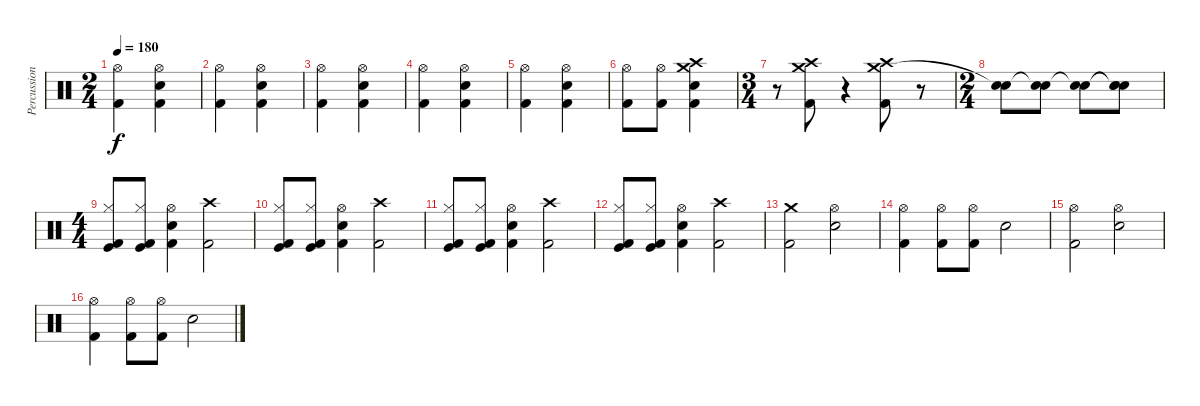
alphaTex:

\track ("Percussion" "Percussion") {instrument percussion}
\staff {score}
\articulation defaults
\ts (2 4)
\tempo 180
\clef neutral
\ks c
("Hi-Hat (open)" "Kick (hit) 2").4{dy f} ("Hi-Hat (open)" "Snare (hit) 2" "Kick (hit) 2").4 |
("Hi-Hat (open)" "Kick (hit) 2").4 ("Hi-Hat (open)" "Snare (hit) 2" "Kick (hit) 2").4 |
("Hi-Hat (open)" "Kick (hit) 2").4 ("Hi-Hat (open)" "Snare (hit) 2" "Kick (hit) 2").4 |
("Hi-Hat (open)" "Kick (hit) 2").4 ("Hi-Hat (open)" "Snare (hit) 2" "Kick (hit) 2").4 |
("Hi-Hat (open)" "Kick (hit) 2").4 ("Hi-Hat (open)" "Snare (hit) 2" "Kick (hit) 2").4 |
("Hi-Hat (open)" "Kick (hit) 2").8 ("Hi-Hat (open)" "Kick (hit) 2").8 ("Crash medium (hit)" "Crash high (hit)" "Snare (hit) 2" "Kick (hit) 2").4 |
\ts (3 4)
r.8 ("Crash medium (hit)" "Crash high (hit)" "Kick (hit) 2").8 r.4 ("Crash medium (hit)" "Crash high (hit)" "Kick (hit) 2").8 r.8 |
\ts (2 4)
("Snare (hit)"{t} "Snare (hit) 2").8 ("Snare (hit)"{t} "Snare (hit) 2").8 ("Snare (hit)"{t} "Snare (hit) 2").8 ("Snare (hit)"{t} "Snare (hit)"{t} "Snare (hit) 2").8 |
\ts (4 4)
("Hi-Hat (closed)" "Kick (hit)" "Kick (hit) 2").8 ("Hi-Hat (closed)" "Kick (hit)" "Kick (hit) 2").8 ("Hi-Hat (open)" "Snare (hit) 2" "Kick (hit) 2").4 ("Crash high (hit)" "Kick (hit) 2").2 |
("Hi-Hat (closed)" "Kick (hit)" "Kick (hit) 2").8 ("Hi-Hat (closed)" "Kick (hit)" "Kick (hit) 2").8 ("Hi-Hat (open)" "Snare (hit) 2" "Kick (hit) 2").4 ("Crash high (hit)" "Kick (hit) 2").2 |
("Hi-Hat (closed)" "Kick (hit)" "Kick (hit) 2").8 ("Hi-Hat (closed)" "Kick (hit)" "Kick (hit) 2").8 ("Hi-Hat (open)" "Snare (hit) 2" "Kick (hit) 2").4 ("Crash high (hit)" "Kick (hit) 2").2 |
("Hi-Hat (closed)" "Kick (hit)" "Kick (hit) 2").8 ("Hi-Hat (closed)" "Kick (hit)" "Kick (hit) 2").8 ("Hi-Hat (open)" "Snare (hit) 2" "Kick (hit) 2").4 ("Crash high (hit)" "Kick (hit) 2").2 |
("Crash medium (hit)" "Kick (hit) 2").2 ("Hi-Hat (open)" "Snare (hit) 2").2 |
("Hi-Hat (open)" "Kick (hit) 2").4 ("Hi-Hat (open)" "Kick (hit) 2").8 ("Hi-Hat (open)" "Kick (hit) 2").8 "Snare (hit) 2".2 |
("Hi-Hat (open)" "Kick (hit) 2").2 ("Hi-Hat (open)" "Snare (hit) 2").2 |
("Hi-Hat (open)" "Kick (hit) 2").4 ("Hi-Hat (open)" "Kick (hit) 2").8 ("Hi-Hat (open)" "Kick (hit) 2").8 "Snare (hit) 2".2
